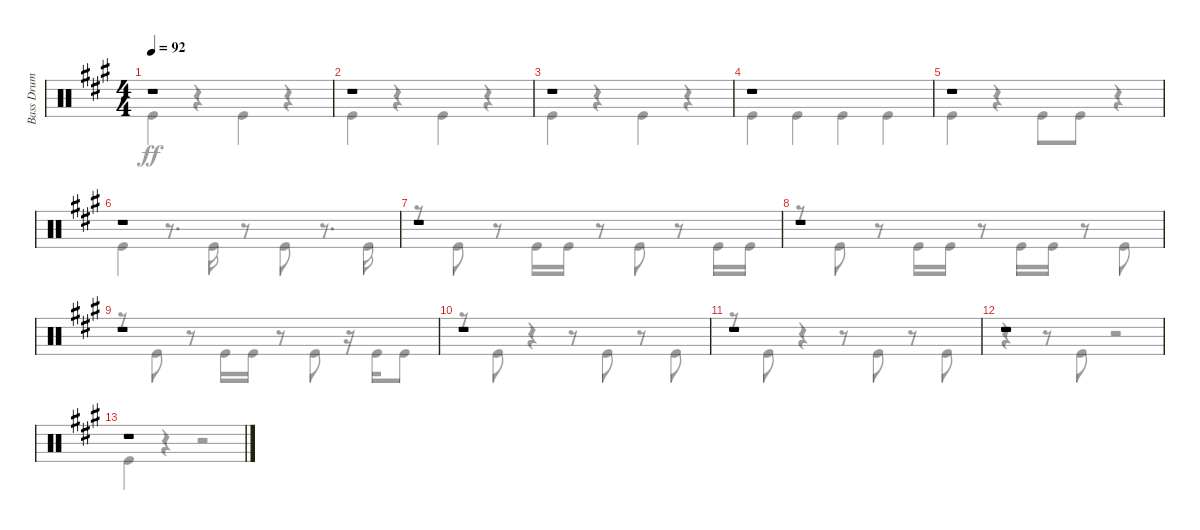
\track ("Bass Drum" "Bass Drum") {instrument percussion}
\staff {score}
\articulation defaults
\voice
\ts (4 4)
\tempo 92
\clef neutral
\ks f#minor
r.1{dy f} |
r.1 |
r.1 |
r.1 |
r.1 |
r.1 |
r.1 |
r.1 |
r.1 |
r.1 |
r.1 |
r.1 |
r.1
\voice
\clef neutral
\ottava regular
\simile none
\ks f#minor "Kick (hit)".4{dy ff}
r.4 "Kick (hit)".4 r.4 |
"Kick (hit)".4 r.4 "Kick (hit)".4 r.4 |
"Kick (hit)".4 r.4 "Kick (hit)".4 r.4 |
"Kick (hit)".4 "Kick (hit)".4 "Kick (hit)".4 "Kick (hit)".4 |
"Kick (hit)".4 r.4 "Kick (hit)".8 "Kick (hit)".8 r.4 |
"Kick (hit)".4 r.8{d} "Kick (hit)".16 r.8 "Kick (hit)".8 r.8{d} "Kick (hit)".16 |
r.8 "Kick (hit)".8 r.8 "Kick (hit)".16 "Kick (hit)".16 r.8 "Kick (hit)".8 r.8 "Kick (hit)".16 "Kick (hit)".16 |
r.8 "Kick (hit)".8 r.8 "Kick (hit)".16 "Kick (hit)".16 r.8 "Kick (hit)".16 "Kick (hit)".16 r.8 "Kick (hit)".8 |
r.8 "Kick (hit)".8 r.8 "Kick (hit)".16 "Kick (hit)".16 r.8 "Kick (hit)".8 r.16 "Kick (hit)".16 "Kick (hit)".8 |
r.8 "Kick (hit)".8 r.4 r.8 "Kick (hit)".8 r.8 "Kick (hit)".8 |
r.8 "Kick (hit)".8 r.4 r.8 "Kick (hit)".8 r.8 "Kick (hit)".8 |
r.4 r.8 "Kick (hit)".8 r.2 |
"Kick (hit)".4 r.4 r.2
